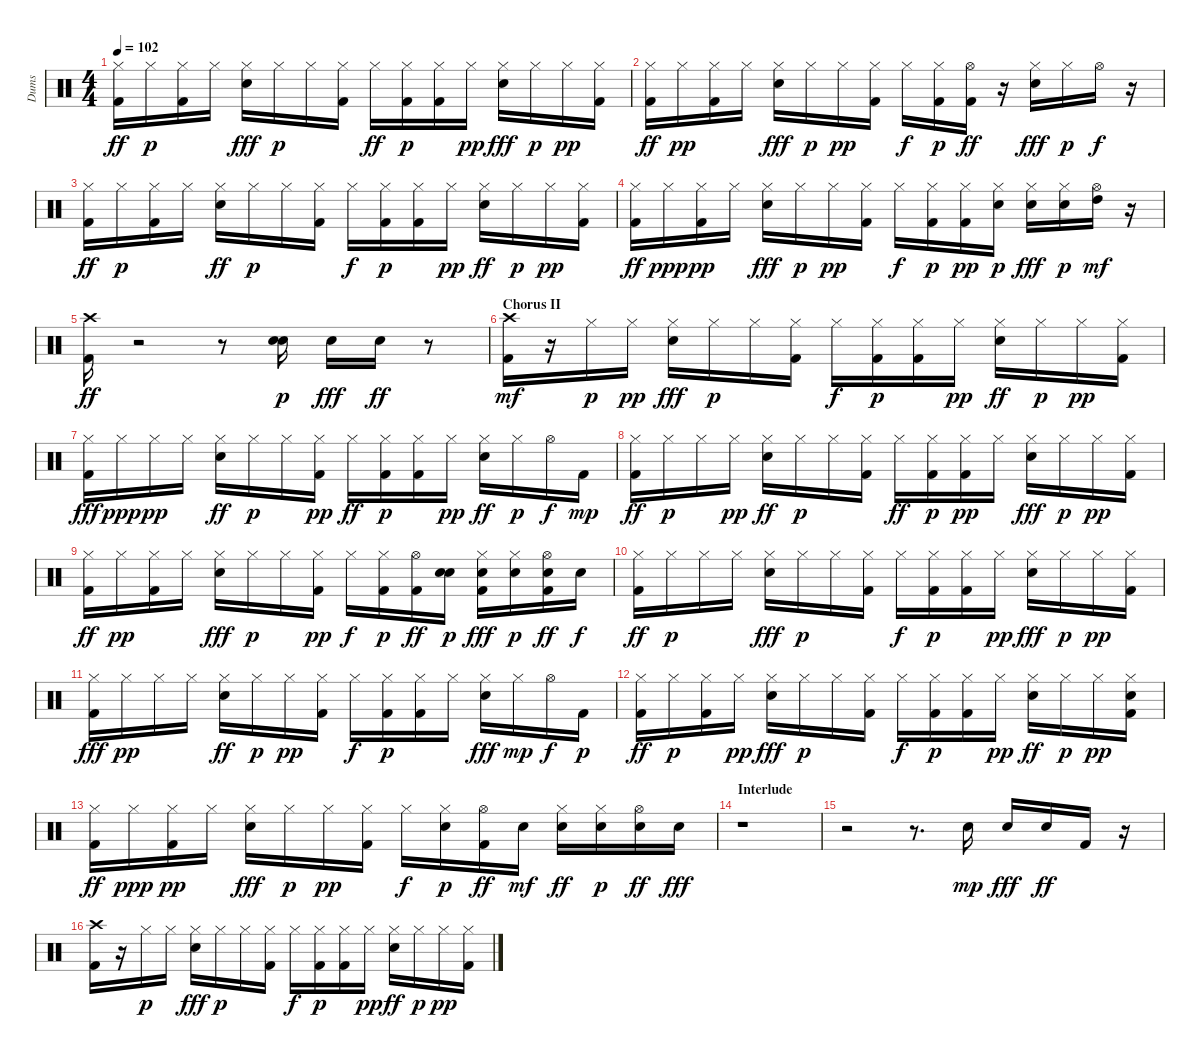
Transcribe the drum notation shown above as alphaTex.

\track ("Dums" "Dums") {instrument percussion}
\staff {score}
\articulation defaults
\ts (4 4)
\tempo 102
\clef neutral
\ks c
("Kick (hit) 2" "Hi-Hat (closed)").16{dy ff} "Hi-Hat (closed)".16{dy p} ("Kick (hit) 2" "Hi-Hat (closed)").16 "Hi-Hat (closed)".16 ("Electric Snare (hit)" "Hi-Hat (closed)").16{dy fff} "Hi-Hat (closed)".16{dy p} "Hi-Hat (closed)".16 ("Kick (hit) 2" "Hi-Hat (closed)").16 "Hi-Hat (closed)".16{dy ff} ("Kick (hit) 2" "Hi-Hat (closed)").16{dy p} ("Kick (hit) 2" "Hi-Hat (closed)").16 "Hi-Hat (closed)".16{dy pp} ("Electric Snare (hit)" "Hi-Hat (closed)").16{dy fff} "Hi-Hat (closed)".16{dy p} "Hi-Hat (closed)".16{dy pp} ("Kick (hit) 2" "Hi-Hat (closed)").16 |
("Kick (hit) 2" "Hi-Hat (closed)").16{dy ff} "Hi-Hat (closed)".16{dy pp} ("Kick (hit) 2" "Hi-Hat (closed)").16 "Hi-Hat (closed)".16 ("Electric Snare (hit)" "Hi-Hat (closed)").16{dy fff} "Hi-Hat (closed)".16{dy p} "Hi-Hat (closed)".16{dy pp} ("Kick (hit) 2" "Hi-Hat (closed)").16 "Hi-Hat (closed)".16{dy f} ("Kick (hit) 2" "Hi-Hat (closed)").16{dy p} ("Kick (hit) 2" "Hi-Hat (open)").16{dy ff} r.16 ("Electric Snare (hit)" "Hi-Hat (closed)").16{dy fff} "Hi-Hat (closed)".16{dy p} "Hi-Hat (open)".16{dy f} r.16 |
("Kick (hit) 2" "Hi-Hat (closed)").16{dy ff} "Hi-Hat (closed)".16{dy p} ("Kick (hit) 2" "Hi-Hat (closed)").16 "Hi-Hat (closed)".16 ("Electric Snare (hit)" "Hi-Hat (closed)").16{dy ff} "Hi-Hat (closed)".16{dy p} "Hi-Hat (closed)".16 ("Kick (hit) 2" "Hi-Hat (closed)").16 "Hi-Hat (closed)".16{dy f} ("Kick (hit) 2" "Hi-Hat (closed)").16{dy p} ("Kick (hit) 2" "Hi-Hat (closed)").16 "Hi-Hat (closed)".16{dy pp} ("Electric Snare (hit)" "Hi-Hat (closed)").16{dy ff} "Hi-Hat (closed)".16{dy p} "Hi-Hat (closed)".16{dy pp} ("Kick (hit) 2" "Hi-Hat (closed)").16 |
("Kick (hit) 2" "Hi-Hat (closed)").16{dy ff} "Hi-Hat (closed)".16{dy ppp} ("Kick (hit) 2" "Hi-Hat (closed)").16{dy pp} "Hi-Hat (closed)".16 ("Electric Snare (hit)" "Hi-Hat (closed)").16{dy fff} "Hi-Hat (closed)".16{dy p} "Hi-Hat (closed)".16{dy pp} ("Kick (hit) 2" "Hi-Hat (closed)").16 "Hi-Hat (closed)".16{dy f} ("Kick (hit) 2" "Hi-Hat (closed)").16{dy p} ("Kick (hit) 2" "Hi-Hat (closed)").16{dy pp} ("Electric Snare (hit)" "Hi-Hat (closed)").16{dy p} ("Electric Snare (hit)" "Hi-Hat (closed)").16{dy fff} ("Electric Snare (hit)" "Hi-Hat (closed)").16{dy p} ("Hi-Hat (open)" "High Tom (hit)").16{dy mf} r.16 |
("Kick (hit) 2" "Crash high (hit)").16{dy ff} r.2 r.8 ("Electric Snare (hit)" "Electric Snare (hit)").16{dy p} "Electric Snare (hit)".16{dy fff} "Electric Snare (hit)".16{dy ff} r.8 |
\section ("" "Chorus II")
("Kick (hit) 2" "Crash high (hit)").16{dy mf} r.16 "Hi-Hat (closed)".16{dy p} "Hi-Hat (closed)".16{dy pp} ("Electric Snare (hit)" "Hi-Hat (closed)").16{dy fff} "Hi-Hat (closed)".16{dy p} "Hi-Hat (closed)".16 ("Kick (hit) 2" "Hi-Hat (closed)").16 "Hi-Hat (closed)".16{dy f} ("Kick (hit) 2" "Hi-Hat (closed)").16{dy p} ("Kick (hit) 2" "Hi-Hat (closed)").16 "Hi-Hat (closed)".16{dy pp} ("Electric Snare (hit)" "Hi-Hat (closed)").16{dy ff} "Hi-Hat (closed)".16{dy p} "Hi-Hat (closed)".16{dy pp} ("Kick (hit) 2" "Hi-Hat (closed)").16 |
("Kick (hit) 2" "Hi-Hat (closed)").16{dy fff} "Hi-Hat (closed)".16{dy ppp} "Hi-Hat (closed)".16{dy pp} "Hi-Hat (closed)".16 ("Electric Snare (hit)" "Hi-Hat (closed)").16{dy ff} "Hi-Hat (closed)".16{dy p} "Hi-Hat (closed)".16 ("Kick (hit) 2" "Hi-Hat (closed)").16{dy pp} "Hi-Hat (closed)".16{dy ff} ("Kick (hit) 2" "Hi-Hat (closed)").16{dy p} ("Kick (hit) 2" "Hi-Hat (closed)").16 "Hi-Hat (closed)".16{dy pp} ("Electric Snare (hit)" "Hi-Hat (closed)").16{dy ff} "Hi-Hat (closed)".16{dy p} "Hi-Hat (open)".16{dy f} "Kick (hit) 2".16{dy mp} |
("Kick (hit) 2" "Hi-Hat (closed)").16{dy ff} "Hi-Hat (closed)".16{dy p} "Hi-Hat (closed)".16 "Hi-Hat (closed)".16{dy pp} ("Electric Snare (hit)" "Hi-Hat (closed)").16{dy ff} "Hi-Hat (closed)".16{dy p} "Hi-Hat (closed)".16 ("Kick (hit) 2" "Hi-Hat (closed)").16 "Hi-Hat (closed)".16{dy ff} ("Kick (hit) 2" "Hi-Hat (closed)").16{dy p} ("Kick (hit) 2" "Hi-Hat (closed)").16{dy pp} "Hi-Hat (closed)".16 ("Electric Snare (hit)" "Hi-Hat (closed)").16{dy fff} "Hi-Hat (closed)".16{dy p} "Hi-Hat (closed)".16{dy pp} ("Kick (hit) 2" "Hi-Hat (closed)").16 |
("Kick (hit) 2" "Hi-Hat (closed)").16{dy ff} "Hi-Hat (closed)".16{dy pp} ("Kick (hit) 2" "Hi-Hat (closed)").16 "Hi-Hat (closed)".16 ("Electric Snare (hit)" "Hi-Hat (closed)").16{dy fff} "Hi-Hat (closed)".16{dy p} "Hi-Hat (closed)".16 ("Kick (hit) 2" "Hi-Hat (closed)").16{dy pp} "Hi-Hat (closed)".16{dy f} ("Kick (hit) 2" "Hi-Hat (closed)").16{dy p} ("Kick (hit) 2" "Hi-Hat (open)").16{dy ff} ("Electric Snare (hit)" "Electric Snare (hit)").16{dy p} ("Kick (hit) 2" "Electric Snare (hit)" "Hi-Hat (closed)").16{dy fff} ("Electric Snare (hit)" "Hi-Hat (closed)").16{dy p} ("Kick (hit) 2" "Electric Snare (hit)" "Hi-Hat (open)").16{dy ff} "Electric Snare (hit)".16{dy f} |
("Kick (hit) 2" "Hi-Hat (closed)").16{dy ff} "Hi-Hat (closed)".16{dy p} "Hi-Hat (closed)".16 "Hi-Hat (closed)".16 ("Electric Snare (hit)" "Hi-Hat (closed)").16{dy fff} "Hi-Hat (closed)".16{dy p} "Hi-Hat (closed)".16 ("Kick (hit) 2" "Hi-Hat (closed)").16 "Hi-Hat (closed)".16{dy f} ("Kick (hit) 2" "Hi-Hat (closed)").16{dy p} ("Kick (hit) 2" "Hi-Hat (closed)").16 "Hi-Hat (closed)".16{dy pp} ("Electric Snare (hit)" "Hi-Hat (closed)").16{dy fff} "Hi-Hat (closed)".16{dy p} "Hi-Hat (closed)".16{dy pp} ("Kick (hit) 2" "Hi-Hat (closed)").16 |
("Kick (hit) 2" "Hi-Hat (closed)").16{dy fff} "Hi-Hat (closed)".16{dy pp} "Hi-Hat (closed)".16 "Hi-Hat (closed)".16 ("Electric Snare (hit)" "Hi-Hat (closed)").16{dy ff} "Hi-Hat (closed)".16{dy p} "Hi-Hat (closed)".16{dy pp} ("Kick (hit) 2" "Hi-Hat (closed)").16 "Hi-Hat (closed)".16{dy f} ("Kick (hit) 2" "Hi-Hat (closed)").16{dy p} ("Kick (hit) 2" "Hi-Hat (closed)").16 "Hi-Hat (closed)".16 ("Electric Snare (hit)" "Hi-Hat (closed)").16{dy fff} "Hi-Hat (closed)".16{dy mp} "Hi-Hat (open)".16{dy f} "Kick (hit) 2".16{dy p} |
("Kick (hit) 2" "Hi-Hat (closed)").16{dy ff} "Hi-Hat (closed)".16{dy p} ("Kick (hit) 2" "Hi-Hat (closed)").16 "Hi-Hat (closed)".16{dy pp} ("Electric Snare (hit)" "Hi-Hat (closed)").16{dy fff} "Hi-Hat (closed)".16{dy p} "Hi-Hat (closed)".16 ("Kick (hit) 2" "Hi-Hat (closed)").16 "Hi-Hat (closed)".16{dy f} ("Kick (hit) 2" "Hi-Hat (closed)").16{dy p} ("Kick (hit) 2" "Hi-Hat (closed)").16 "Hi-Hat (closed)".16{dy pp} ("Electric Snare (hit)" "Hi-Hat (closed)").16{dy ff} "Hi-Hat (closed)".16{dy p} "Hi-Hat (closed)".16{dy pp} ("Kick (hit) 2" "Electric Snare (hit)" "Hi-Hat (closed)").16 |
("Kick (hit) 2" "Hi-Hat (closed)").16{dy ff} "Hi-Hat (closed)".16{dy ppp} ("Kick (hit) 2" "Hi-Hat (closed)").16{dy pp} "Hi-Hat (closed)".16 ("Electric Snare (hit)" "Hi-Hat (closed)").16{dy fff} "Hi-Hat (closed)".16{dy p} "Hi-Hat (closed)".16{dy pp} ("Kick (hit) 2" "Hi-Hat (closed)").16 "Hi-Hat (closed)".16{dy f} ("Electric Snare (hit)" "Hi-Hat (closed)").16{dy p} ("Kick (hit) 2" "Hi-Hat (open)").16{dy ff} "Electric Snare (hit)".16{dy mf} ("Electric Snare (hit)" "Hi-Hat (closed)").16{dy ff} ("Electric Snare (hit)" "Hi-Hat (closed)").16{dy p} ("Electric Snare (hit)" "Hi-Hat (open)").16{dy ff} "Electric Snare (hit)".16{dy fff} |
\section ("" "Interlude")
r.1 |
r.2 r.8{d} "Electric Snare (hit)".16{dy mp} "Electric Snare (hit)".16{dy fff} "Electric Snare (hit)".16{dy ff} "Kick (hit) 2".16 r.16 |
("Kick (hit) 2" "Crash high (hit)").16 r.16 "Hi-Hat (closed)".16{dy p} "Hi-Hat (closed)".16 ("Electric Snare (hit)" "Hi-Hat (closed)").16{dy fff} "Hi-Hat (closed)".16{dy p} "Hi-Hat (closed)".16 ("Kick (hit) 2" "Hi-Hat (closed)").16 "Hi-Hat (closed)".16{dy f} ("Kick (hit) 2" "Hi-Hat (closed)").16{dy p} ("Kick (hit) 2" "Hi-Hat (closed)").16 "Hi-Hat (closed)".16{dy pp} ("Electric Snare (hit)" "Hi-Hat (closed)").16{dy ff} "Hi-Hat (closed)".16{dy p} "Hi-Hat (closed)".16{dy pp} ("Kick (hit) 2" "Hi-Hat (closed)").16
